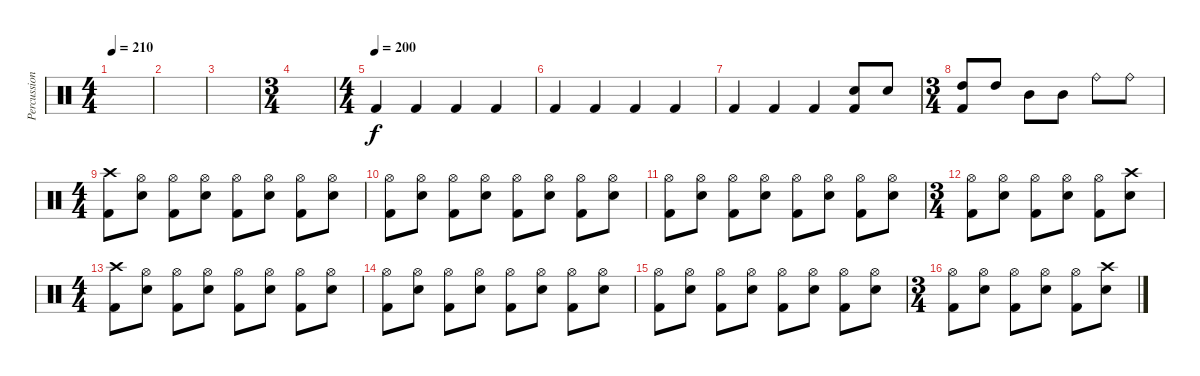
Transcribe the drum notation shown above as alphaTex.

\track ("Percussions" "Percussion") {instrument percussion}
\staff {score}
\articulation defaults
\ts (4 4)
\tempo 210
\clef neutral
\ks c
|
|
|
\ts (3 4)
|
\ts (4 4)
\tempo (200)
"Kick (hit) 2".4 "Kick (hit) 2".4 "Kick (hit) 2".4 "Kick (hit) 2".4 |
"Kick (hit) 2".4 "Kick (hit) 2".4 "Kick (hit) 2".4 "Kick (hit) 2".4 |
"Kick (hit) 2".4 "Kick (hit) 2".4 "Kick (hit) 2".4 ("Electric Snare (hit)" "Kick (hit) 2").8 "Electric Snare (hit)".8 |
\ts (3 4)
("High Tom (hit)" "Kick (hit) 2").8 "High Tom (hit)".8 "Mid Tom (hit)".8 "Mid Tom (hit)".8 "Ride (bell)".8 "Ride (bell)".8 |
\ts (4 4)
("Crash high (hit)" "Kick (hit) 2").8 ("Hi-Hat (open)" "Electric Snare (hit)").8 ("Hi-Hat (open)" "Kick (hit) 2").8 ("Hi-Hat (open)" "Electric Snare (hit)").8 ("Hi-Hat (open)" "Kick (hit) 2").8 ("Hi-Hat (open)" "Electric Snare (hit)").8 ("Hi-Hat (open)" "Kick (hit) 2").8 ("Hi-Hat (open)" "Electric Snare (hit)").8 |
("Hi-Hat (open)" "Kick (hit) 2").8 ("Hi-Hat (open)" "Electric Snare (hit)").8 ("Hi-Hat (open)" "Kick (hit) 2").8 ("Hi-Hat (open)" "Electric Snare (hit)").8 ("Hi-Hat (open)" "Kick (hit) 2").8 ("Hi-Hat (open)" "Electric Snare (hit)").8 ("Hi-Hat (open)" "Kick (hit) 2").8 ("Hi-Hat (open)" "Electric Snare (hit)").8 |
("Hi-Hat (open)" "Kick (hit) 2").8 ("Hi-Hat (open)" "Electric Snare (hit)").8 ("Hi-Hat (open)" "Kick (hit) 2").8 ("Hi-Hat (open)" "Electric Snare (hit)").8 ("Hi-Hat (open)" "Kick (hit) 2").8 ("Hi-Hat (open)" "Electric Snare (hit)").8 ("Hi-Hat (open)" "Kick (hit) 2").8 ("Hi-Hat (open)" "Electric Snare (hit)").8 |
\ts (3 4)
("Hi-Hat (open)" "Kick (hit) 2").8 ("Hi-Hat (open)" "Electric Snare (hit)").8 ("Hi-Hat (open)" "Kick (hit) 2").8 ("Hi-Hat (open)" "Electric Snare (hit)").8 ("Hi-Hat (open)" "Kick (hit) 2").8 ("Crash high (hit)" "Electric Snare (hit)").8 |
\ts (4 4)
("Crash high (hit)" "Kick (hit) 2").8 ("Hi-Hat (open)" "Electric Snare (hit)").8 ("Hi-Hat (open)" "Kick (hit) 2").8 ("Hi-Hat (open)" "Electric Snare (hit)").8 ("Hi-Hat (open)" "Kick (hit) 2").8 ("Hi-Hat (open)" "Electric Snare (hit)").8 ("Hi-Hat (open)" "Kick (hit) 2").8 ("Hi-Hat (open)" "Electric Snare (hit)").8 |
("Hi-Hat (open)" "Kick (hit) 2").8 ("Hi-Hat (open)" "Electric Snare (hit)").8 ("Hi-Hat (open)" "Kick (hit) 2").8 ("Hi-Hat (open)" "Electric Snare (hit)").8 ("Hi-Hat (open)" "Kick (hit) 2").8 ("Hi-Hat (open)" "Electric Snare (hit)").8 ("Hi-Hat (open)" "Kick (hit) 2").8 ("Hi-Hat (open)" "Electric Snare (hit)").8 |
("Hi-Hat (open)" "Kick (hit) 2").8 ("Hi-Hat (open)" "Electric Snare (hit)").8 ("Hi-Hat (open)" "Kick (hit) 2").8 ("Hi-Hat (open)" "Electric Snare (hit)").8 ("Hi-Hat (open)" "Kick (hit) 2").8 ("Hi-Hat (open)" "Electric Snare (hit)").8 ("Hi-Hat (open)" "Kick (hit) 2").8 ("Hi-Hat (open)" "Electric Snare (hit)").8 |
\ts (3 4)
("Hi-Hat (open)" "Kick (hit) 2").8 ("Hi-Hat (open)" "Electric Snare (hit)").8 ("Hi-Hat (open)" "Kick (hit) 2").8 ("Hi-Hat (open)" "Electric Snare (hit)").8 ("Hi-Hat (open)" "Kick (hit) 2").8 ("Crash high (hit)" "Electric Snare (hit)").8
